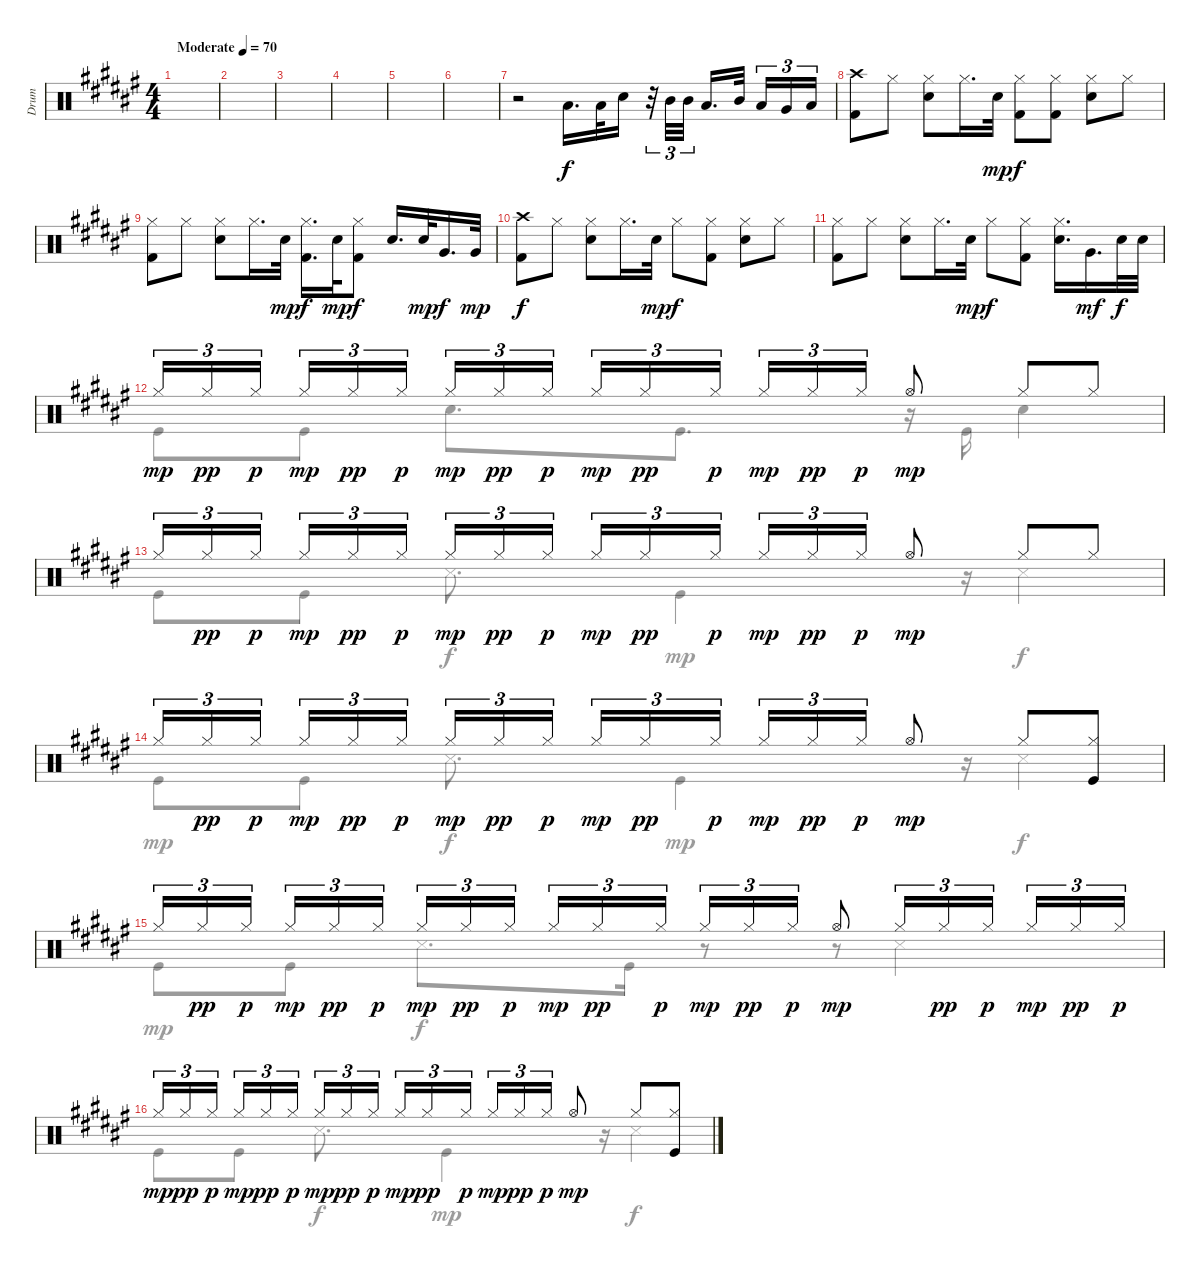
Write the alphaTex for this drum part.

\track ("Drum" "Drum") {instrument percussion}
\staff {score}
\articulation defaults
\voice
\ts (4 4)
\tempo (70 "Moderate")
\clef neutral
\ks f#
|
|
|
|
|
|
r.2 "Low Tom (hit)".16{d} "Low Floor Tom (hit)".32 "Snare (hit) 2".16 r.32{tu (3 2)} "Mid Tom (hit)".32{tu (3 2)} "Mid Tom (hit)".32{tu (3 2)} "Low Tom (hit)".16{d dy f} "Mid Tom (hit)".32{beam splitsecondary} "Low Floor Tom (hit)".16{tu (3 2)} "Very Low Tom (hit)".16{tu (3 2)} "Low Tom (hit)".16{tu (3 2)} |
("Crash high (hit)" "Kick (hit) 2").8 "Hi-Hat (closed)".8 ("Hi-Hat (closed)" "Snare (hit) 2").8 "Hi-Hat (closed)".16{d} "Snare (hit) 2".32{dy mp} ("Hi-Hat (closed)" "Kick (hit) 2").8{dy f} ("Hi-Hat (closed)" "Kick (hit) 2").8 ("Hi-Hat (closed)" "Snare (hit) 2").8 "Hi-Hat (closed)".8 |
("Hi-Hat (closed)" "Kick (hit) 2").8 "Hi-Hat (closed)".8 ("Hi-Hat (closed)" "Snare (hit) 2").8 "Hi-Hat (closed)".16{d} "Snare (hit) 2".32{dy mp} ("Hi-Hat (closed)" "Kick (hit) 2").16{d dy f} "Snare (hit) 2".32{dy mp} ("Hi-Hat (closed)" "Kick (hit) 2").8{dy f} "Snare (hit) 2".16{d} "Snare (hit) 2".32{dy mp} "Very Low Tom (hit)".16{d dy f} "Very Low Tom (hit)".32{dy mp} |
("Crash high (hit)" "Kick (hit) 2").8{dy f} "Hi-Hat (closed)".8 ("Hi-Hat (closed)" "Snare (hit) 2").8 "Hi-Hat (closed)".16{d} "Snare (hit) 2".32{dy mp} "Hi-Hat (closed)".8{dy f} ("Hi-Hat (closed)" "Kick (hit) 2").8 ("Hi-Hat (closed)" "Snare (hit) 2").8 "Hi-Hat (closed)".8 |
("Hi-Hat (closed)" "Kick (hit) 2").8 "Hi-Hat (closed)".8 ("Hi-Hat (closed)" "Snare (hit) 2").8 "Hi-Hat (closed)".16{d} "Snare (hit) 2".32{dy mp} "Hi-Hat (closed)".8{dy f} ("Hi-Hat (closed)" "Kick (hit) 2").8 ("Hi-Hat (closed)" "Snare (hit) 2").16{d} "Very Low Tom (hit)".16{d dy mf} "Snare (hit) 2".32{dy f} "Snare (hit) 2".32 |
"Hi-Hat (closed)".16{tu (3 2) dy mp} "Hi-Hat (closed)".16{tu (3 2) dy pp} "Hi-Hat (closed)".16{tu (3 2) dy p beam splitsecondary} "Hi-Hat (closed)".16{tu (3 2) dy mp} "Hi-Hat (closed)".16{tu (3 2) dy pp} "Hi-Hat (closed)".16{tu (3 2) dy p} "Hi-Hat (closed)".16{tu (3 2) dy mp} "Hi-Hat (closed)".16{tu (3 2) dy pp} "Hi-Hat (closed)".16{tu (3 2) dy p beam splitsecondary} "Hi-Hat (closed)".16{tu (3 2) dy mp} "Hi-Hat (closed)".16{tu (3 2) dy pp} "Hi-Hat (closed)".16{tu (3 2) dy p} "Hi-Hat (closed)".16{tu (3 2) dy mp} "Hi-Hat (closed)".16{tu (3 2) dy pp} "Hi-Hat (closed)".16{tu (3 2) dy p} "Hi-Hat (open)".8{dy mp} "Hi-Hat (closed)".8 "Hi-Hat (closed)".8 |
"Hi-Hat (closed)".16{tu (3 2)} "Hi-Hat (closed)".16{tu (3 2) dy pp} "Hi-Hat (closed)".16{tu (3 2) dy p beam splitsecondary} "Hi-Hat (closed)".16{tu (3 2) dy mp} "Hi-Hat (closed)".16{tu (3 2) dy pp} "Hi-Hat (closed)".16{tu (3 2) dy p} "Hi-Hat (closed)".16{tu (3 2) dy mp} "Hi-Hat (closed)".16{tu (3 2) dy pp} "Hi-Hat (closed)".16{tu (3 2) dy p beam splitsecondary} "Hi-Hat (closed)".16{tu (3 2) dy mp} "Hi-Hat (closed)".16{tu (3 2) dy pp} "Hi-Hat (closed)".16{tu (3 2) dy p} "Hi-Hat (closed)".16{tu (3 2) dy mp} "Hi-Hat (closed)".16{tu (3 2) dy pp} "Hi-Hat (closed)".16{tu (3 2) dy p} "Hi-Hat (open)".8{dy mp} "Hi-Hat (closed)".8 "Hi-Hat (closed)".8 |
"Hi-Hat (closed)".16{tu (3 2)} "Hi-Hat (closed)".16{tu (3 2) dy pp} "Hi-Hat (closed)".16{tu (3 2) dy p beam splitsecondary} "Hi-Hat (closed)".16{tu (3 2) dy mp} "Hi-Hat (closed)".16{tu (3 2) dy pp} "Hi-Hat (closed)".16{tu (3 2) dy p} "Hi-Hat (closed)".16{tu (3 2) dy mp} "Hi-Hat (closed)".16{tu (3 2) dy pp} "Hi-Hat (closed)".16{tu (3 2) dy p beam splitsecondary} "Hi-Hat (closed)".16{tu (3 2) dy mp} "Hi-Hat (closed)".16{tu (3 2) dy pp} "Hi-Hat (closed)".16{tu (3 2) dy p} "Hi-Hat (closed)".16{tu (3 2) dy mp} "Hi-Hat (closed)".16{tu (3 2) dy pp} "Hi-Hat (closed)".16{tu (3 2) dy p} "Hi-Hat (open)".8{dy mp} "Hi-Hat (closed)".8 ("Hi-Hat (closed)" "Kick (hit)").8 |
"Hi-Hat (closed)".16{tu (3 2)} "Hi-Hat (closed)".16{tu (3 2) dy pp} "Hi-Hat (closed)".16{tu (3 2) dy p beam splitsecondary} "Hi-Hat (closed)".16{tu (3 2) dy mp} "Hi-Hat (closed)".16{tu (3 2) dy pp} "Hi-Hat (closed)".16{tu (3 2) dy p} "Hi-Hat (closed)".16{tu (3 2) dy mp} "Hi-Hat (closed)".16{tu (3 2) dy pp} "Hi-Hat (closed)".16{tu (3 2) dy p beam splitsecondary} "Hi-Hat (closed)".16{tu (3 2) dy mp} "Hi-Hat (closed)".16{tu (3 2) dy pp} "Hi-Hat (closed)".16{tu (3 2) dy p} "Hi-Hat (closed)".16{tu (3 2) dy mp} "Hi-Hat (closed)".16{tu (3 2) dy pp} "Hi-Hat (closed)".16{tu (3 2) dy p} "Hi-Hat (open)".8{dy mp} "Hi-Hat (closed)".16{tu (3 2)} "Hi-Hat (closed)".16{tu (3 2) dy pp} "Hi-Hat (closed)".16{tu (3 2) dy p beam splitsecondary} "Hi-Hat (closed)".16{tu (3 2) dy mp} "Hi-Hat (closed)".16{tu (3 2) dy pp} "Hi-Hat (closed)".16{tu (3 2) dy p} |
"Hi-Hat (closed)".16{tu (3 2) dy mp} "Hi-Hat (closed)".16{tu (3 2) dy pp} "Hi-Hat (closed)".16{tu (3 2) dy p beam splitsecondary} "Hi-Hat (closed)".16{tu (3 2) dy mp} "Hi-Hat (closed)".16{tu (3 2) dy pp} "Hi-Hat (closed)".16{tu (3 2) dy p} "Hi-Hat (closed)".16{tu (3 2) dy mp} "Hi-Hat (closed)".16{tu (3 2) dy pp} "Hi-Hat (closed)".16{tu (3 2) dy p beam splitsecondary} "Hi-Hat (closed)".16{tu (3 2) dy mp} "Hi-Hat (closed)".16{tu (3 2) dy pp} "Hi-Hat (closed)".16{tu (3 2) dy p} "Hi-Hat (closed)".16{tu (3 2) dy mp} "Hi-Hat (closed)".16{tu (3 2) dy pp} "Hi-Hat (closed)".16{tu (3 2) dy p} "Hi-Hat (open)".8{dy mp} "Hi-Hat (closed)".8 ("Hi-Hat (closed)" "Kick (hit)").8
\voice
\clef neutral
\ottava regular
\simile none
\ks f#
|
|
|
|
|
|
|
|
|
|
|
"Kick (hit)".8 "Kick (hit)".8 "Snare (hit) 2".8{d} "Kick (hit)".8{d} r.16 "Kick (hit)".16 "Snare (hit) 2".4 |
"Kick (hit)".8 "Kick (hit)".8 "Metronome (hit)".8{d dy f} "Kick (hit)".4{dy mp} r.16 "Metronome (hit)".4{dy f} |
"Kick (hit)".8{dy mp} "Kick (hit)".8 "Metronome (hit)".8{d dy f} "Kick (hit)".4{dy mp} r.16 "Metronome (hit)".4{dy f} |
"Kick (hit)".8{dy mp} "Kick (hit)".8 "Metronome (hit)".8{d dy f} "Kick (hit)".16 r.8 r.8 "Metronome (hit)".4 |
"Kick (hit)".8{dy mp} "Kick (hit)".8 "Metronome (hit)".8{d dy f} "Kick (hit)".4{dy mp} r.16 "Metronome (hit)".4{dy f}
